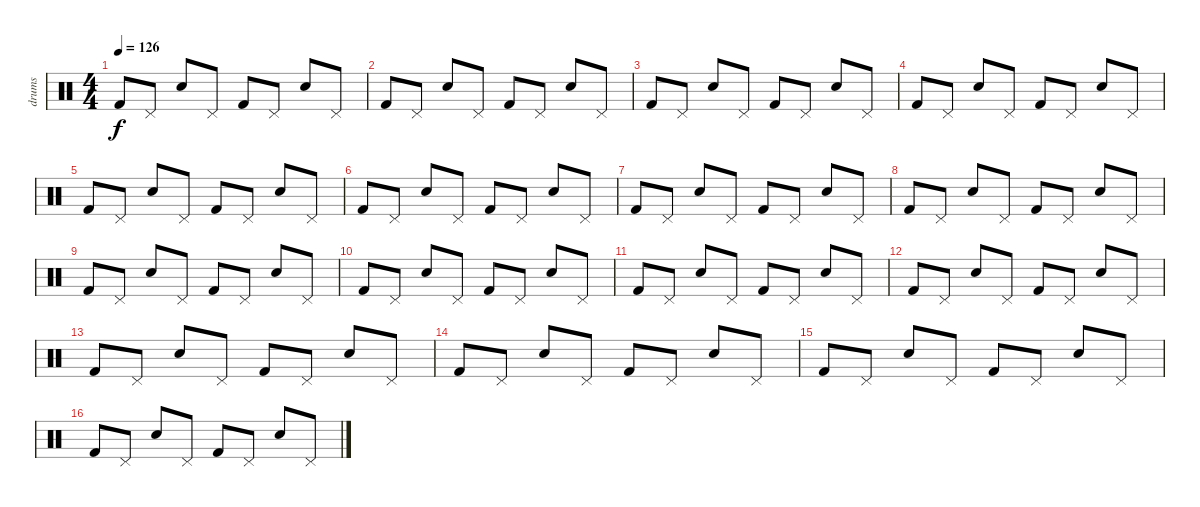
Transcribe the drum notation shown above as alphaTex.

\track ("drums" "drums") {instrument percussion}
\staff {score}
\articulation defaults
\ts (4 4)
\tempo 126
\clef neutral
\ks c "Kick (hit) 2".8{dy f} "Pedal Hi-Hat (hit)".8 "Hand Clap (hit)".8 "Pedal Hi-Hat (hit)".8 "Kick (hit) 2".8 "Pedal Hi-Hat (hit)".8 "Hand Clap (hit)".8 "Pedal Hi-Hat (hit)".8
|
"Kick (hit) 2".8 "Pedal Hi-Hat (hit)".8 "Hand Clap (hit)".8 "Pedal Hi-Hat (hit)".8 "Kick (hit) 2".8 "Pedal Hi-Hat (hit)".8 "Hand Clap (hit)".8 "Pedal Hi-Hat (hit)".8 |
"Kick (hit) 2".8 "Pedal Hi-Hat (hit)".8 "Hand Clap (hit)".8 "Pedal Hi-Hat (hit)".8 "Kick (hit) 2".8 "Pedal Hi-Hat (hit)".8 "Hand Clap (hit)".8 "Pedal Hi-Hat (hit)".8 |
"Kick (hit) 2".8 "Pedal Hi-Hat (hit)".8 "Hand Clap (hit)".8 "Pedal Hi-Hat (hit)".8 "Kick (hit) 2".8 "Pedal Hi-Hat (hit)".8 "Hand Clap (hit)".8 "Pedal Hi-Hat (hit)".8 |
"Kick (hit) 2".8 "Pedal Hi-Hat (hit)".8 "Hand Clap (hit)".8 "Pedal Hi-Hat (hit)".8 "Kick (hit) 2".8 "Pedal Hi-Hat (hit)".8 "Hand Clap (hit)".8 "Pedal Hi-Hat (hit)".8 |
"Kick (hit) 2".8 "Pedal Hi-Hat (hit)".8 "Hand Clap (hit)".8 "Pedal Hi-Hat (hit)".8 "Kick (hit) 2".8 "Pedal Hi-Hat (hit)".8 "Hand Clap (hit)".8 "Pedal Hi-Hat (hit)".8 |
"Kick (hit) 2".8 "Pedal Hi-Hat (hit)".8 "Hand Clap (hit)".8 "Pedal Hi-Hat (hit)".8 "Kick (hit) 2".8 "Pedal Hi-Hat (hit)".8 "Hand Clap (hit)".8 "Pedal Hi-Hat (hit)".8 |
"Kick (hit) 2".8 "Pedal Hi-Hat (hit)".8 "Hand Clap (hit)".8 "Pedal Hi-Hat (hit)".8 "Kick (hit) 2".8 "Pedal Hi-Hat (hit)".8 "Hand Clap (hit)".8 "Pedal Hi-Hat (hit)".8 |
"Kick (hit) 2".8 "Pedal Hi-Hat (hit)".8 "Hand Clap (hit)".8 "Pedal Hi-Hat (hit)".8 "Kick (hit) 2".8 "Pedal Hi-Hat (hit)".8 "Hand Clap (hit)".8 "Pedal Hi-Hat (hit)".8 |
"Kick (hit) 2".8 "Pedal Hi-Hat (hit)".8 "Hand Clap (hit)".8 "Pedal Hi-Hat (hit)".8 "Kick (hit) 2".8 "Pedal Hi-Hat (hit)".8 "Hand Clap (hit)".8 "Pedal Hi-Hat (hit)".8 |
"Kick (hit) 2".8 "Pedal Hi-Hat (hit)".8 "Hand Clap (hit)".8 "Pedal Hi-Hat (hit)".8 "Kick (hit) 2".8 "Pedal Hi-Hat (hit)".8 "Hand Clap (hit)".8 "Pedal Hi-Hat (hit)".8 |
"Kick (hit) 2".8 "Pedal Hi-Hat (hit)".8 "Hand Clap (hit)".8 "Pedal Hi-Hat (hit)".8 "Kick (hit) 2".8 "Pedal Hi-Hat (hit)".8 "Hand Clap (hit)".8 "Pedal Hi-Hat (hit)".8 |
"Kick (hit) 2".8 "Pedal Hi-Hat (hit)".8 "Hand Clap (hit)".8 "Pedal Hi-Hat (hit)".8 "Kick (hit) 2".8 "Pedal Hi-Hat (hit)".8 "Hand Clap (hit)".8 "Pedal Hi-Hat (hit)".8 |
"Kick (hit) 2".8 "Pedal Hi-Hat (hit)".8 "Hand Clap (hit)".8 "Pedal Hi-Hat (hit)".8 "Kick (hit) 2".8 "Pedal Hi-Hat (hit)".8 "Hand Clap (hit)".8 "Pedal Hi-Hat (hit)".8 |
"Kick (hit) 2".8 "Pedal Hi-Hat (hit)".8 "Hand Clap (hit)".8 "Pedal Hi-Hat (hit)".8 "Kick (hit) 2".8 "Pedal Hi-Hat (hit)".8 "Hand Clap (hit)".8 "Pedal Hi-Hat (hit)".8 |
"Kick (hit) 2".8 "Pedal Hi-Hat (hit)".8 "Hand Clap (hit)".8 "Pedal Hi-Hat (hit)".8 "Kick (hit) 2".8 "Pedal Hi-Hat (hit)".8 "Hand Clap (hit)".8 "Pedal Hi-Hat (hit)".8
